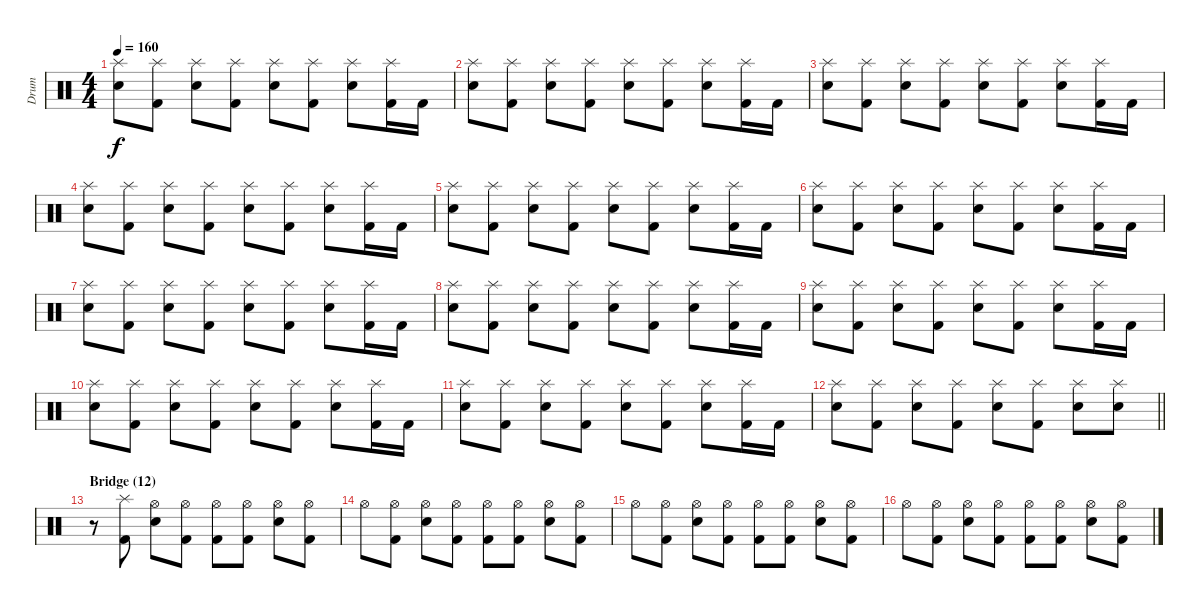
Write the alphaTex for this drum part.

\track ("Drum" "Drum") {instrument percussion}
\staff {score}
\articulation defaults
\ts (4 4)
\tempo 160
\clef neutral
\ks c
("Splash (hit)" "Snare (hit) 2").8{dy f} ("Splash (hit)" "Kick (hit) 2").8 ("Splash (hit)" "Snare (hit) 2").8 ("Splash (hit)" "Kick (hit) 2").8 ("Splash (hit)" "Snare (hit) 2").8 ("Splash (hit)" "Kick (hit) 2").8 ("Splash (hit)" "Snare (hit) 2").8 ("Splash (hit)" "Kick (hit) 2").16 "Kick (hit) 2".16 |
("Splash (hit)" "Snare (hit) 2").8 ("Splash (hit)" "Kick (hit) 2").8 ("Splash (hit)" "Snare (hit) 2").8 ("Splash (hit)" "Kick (hit) 2").8 ("Splash (hit)" "Snare (hit) 2").8 ("Splash (hit)" "Kick (hit) 2").8 ("Splash (hit)" "Snare (hit) 2").8 ("Splash (hit)" "Kick (hit) 2").16 "Kick (hit) 2".16 |
("Splash (hit)" "Snare (hit) 2").8 ("Splash (hit)" "Kick (hit) 2").8 ("Splash (hit)" "Snare (hit) 2").8 ("Splash (hit)" "Kick (hit) 2").8 ("Splash (hit)" "Snare (hit) 2").8 ("Splash (hit)" "Kick (hit) 2").8 ("Splash (hit)" "Snare (hit) 2").8 ("Splash (hit)" "Kick (hit) 2").16 "Kick (hit) 2".16 |
("Splash (hit)" "Snare (hit) 2").8 ("Splash (hit)" "Kick (hit) 2").8 ("Splash (hit)" "Snare (hit) 2").8 ("Splash (hit)" "Kick (hit) 2").8 ("Splash (hit)" "Snare (hit) 2").8 ("Splash (hit)" "Kick (hit) 2").8 ("Splash (hit)" "Snare (hit) 2").8 ("Splash (hit)" "Kick (hit) 2").16 "Kick (hit) 2".16 |
("Splash (hit)" "Snare (hit) 2").8 ("Splash (hit)" "Kick (hit) 2").8 ("Splash (hit)" "Snare (hit) 2").8 ("Splash (hit)" "Kick (hit) 2").8 ("Splash (hit)" "Snare (hit) 2").8 ("Splash (hit)" "Kick (hit) 2").8 ("Splash (hit)" "Snare (hit) 2").8 ("Splash (hit)" "Kick (hit) 2").16 "Kick (hit) 2".16 |
("Splash (hit)" "Snare (hit) 2").8 ("Splash (hit)" "Kick (hit) 2").8 ("Splash (hit)" "Snare (hit) 2").8 ("Splash (hit)" "Kick (hit) 2").8 ("Splash (hit)" "Snare (hit) 2").8 ("Splash (hit)" "Kick (hit) 2").8 ("Splash (hit)" "Snare (hit) 2").8 ("Splash (hit)" "Kick (hit) 2").16 "Kick (hit) 2".16 |
("Splash (hit)" "Snare (hit) 2").8 ("Splash (hit)" "Kick (hit) 2").8 ("Splash (hit)" "Snare (hit) 2").8 ("Splash (hit)" "Kick (hit) 2").8 ("Splash (hit)" "Snare (hit) 2").8 ("Splash (hit)" "Kick (hit) 2").8 ("Splash (hit)" "Snare (hit) 2").8 ("Splash (hit)" "Kick (hit) 2").16 "Kick (hit) 2".16 |
("Splash (hit)" "Snare (hit) 2").8 ("Splash (hit)" "Kick (hit) 2").8 ("Splash (hit)" "Snare (hit) 2").8 ("Splash (hit)" "Kick (hit) 2").8 ("Splash (hit)" "Snare (hit) 2").8 ("Splash (hit)" "Kick (hit) 2").8 ("Splash (hit)" "Snare (hit) 2").8 ("Splash (hit)" "Kick (hit) 2").16 "Kick (hit) 2".16 |
("Splash (hit)" "Snare (hit) 2").8 ("Splash (hit)" "Kick (hit) 2").8 ("Splash (hit)" "Snare (hit) 2").8 ("Splash (hit)" "Kick (hit) 2").8 ("Splash (hit)" "Snare (hit) 2").8 ("Splash (hit)" "Kick (hit) 2").8 ("Splash (hit)" "Snare (hit) 2").8 ("Splash (hit)" "Kick (hit) 2").16 "Kick (hit) 2".16 |
("Splash (hit)" "Snare (hit) 2").8 ("Splash (hit)" "Kick (hit) 2").8 ("Splash (hit)" "Snare (hit) 2").8 ("Splash (hit)" "Kick (hit) 2").8 ("Splash (hit)" "Snare (hit) 2").8 ("Splash (hit)" "Kick (hit) 2").8 ("Splash (hit)" "Snare (hit) 2").8 ("Splash (hit)" "Kick (hit) 2").16 "Kick (hit) 2".16 |
("Splash (hit)" "Snare (hit) 2").8 ("Splash (hit)" "Kick (hit) 2").8 ("Splash (hit)" "Snare (hit) 2").8 ("Splash (hit)" "Kick (hit) 2").8 ("Splash (hit)" "Snare (hit) 2").8 ("Splash (hit)" "Kick (hit) 2").8 ("Splash (hit)" "Snare (hit) 2").8 ("Splash (hit)" "Kick (hit) 2").16 "Kick (hit) 2".16 |
\barLineRight lightlight
("Splash (hit)" "Snare (hit) 2").8 ("Splash (hit)" "Kick (hit) 2").8 ("Splash (hit)" "Snare (hit) 2").8 ("Splash (hit)" "Kick (hit) 2").8 ("Splash (hit)" "Snare (hit) 2").8 ("Splash (hit)" "Kick (hit) 2").8 ("Splash (hit)" "Snare (hit) 2").8 ("Splash (hit)" "Snare (hit) 2").8 |
\section ("" "Bridge (12)")
r.8 ("Splash (hit)" "Kick (hit) 2").8 ("Hi-Hat (open)" "Snare (hit) 2").8 ("Hi-Hat (open)" "Kick (hit) 2").8 ("Hi-Hat (open)" "Kick (hit) 2").8 ("Hi-Hat (open)" "Kick (hit) 2").8 ("Hi-Hat (open)" "Snare (hit) 2").8 ("Hi-Hat (open)" "Kick (hit) 2").8 |
"Hi-Hat (open)".8 ("Hi-Hat (open)" "Kick (hit) 2").8 ("Hi-Hat (open)" "Snare (hit) 2").8 ("Hi-Hat (open)" "Kick (hit) 2").8 ("Hi-Hat (open)" "Kick (hit) 2").8 ("Hi-Hat (open)" "Kick (hit) 2").8 ("Hi-Hat (open)" "Snare (hit) 2").8 ("Hi-Hat (open)" "Kick (hit) 2").8 |
"Hi-Hat (open)".8 ("Hi-Hat (open)" "Kick (hit) 2").8 ("Hi-Hat (open)" "Snare (hit) 2").8 ("Hi-Hat (open)" "Kick (hit) 2").8 ("Hi-Hat (open)" "Kick (hit) 2").8 ("Hi-Hat (open)" "Kick (hit) 2").8 ("Hi-Hat (open)" "Snare (hit) 2").8 ("Hi-Hat (open)" "Kick (hit) 2").8 |
"Hi-Hat (open)".8 ("Hi-Hat (open)" "Kick (hit) 2").8 ("Hi-Hat (open)" "Snare (hit) 2").8 ("Hi-Hat (open)" "Kick (hit) 2").8 ("Hi-Hat (open)" "Kick (hit) 2").8 ("Hi-Hat (open)" "Kick (hit) 2").8 ("Hi-Hat (open)" "Snare (hit) 2").8 ("Hi-Hat (open)" "Kick (hit) 2").8
